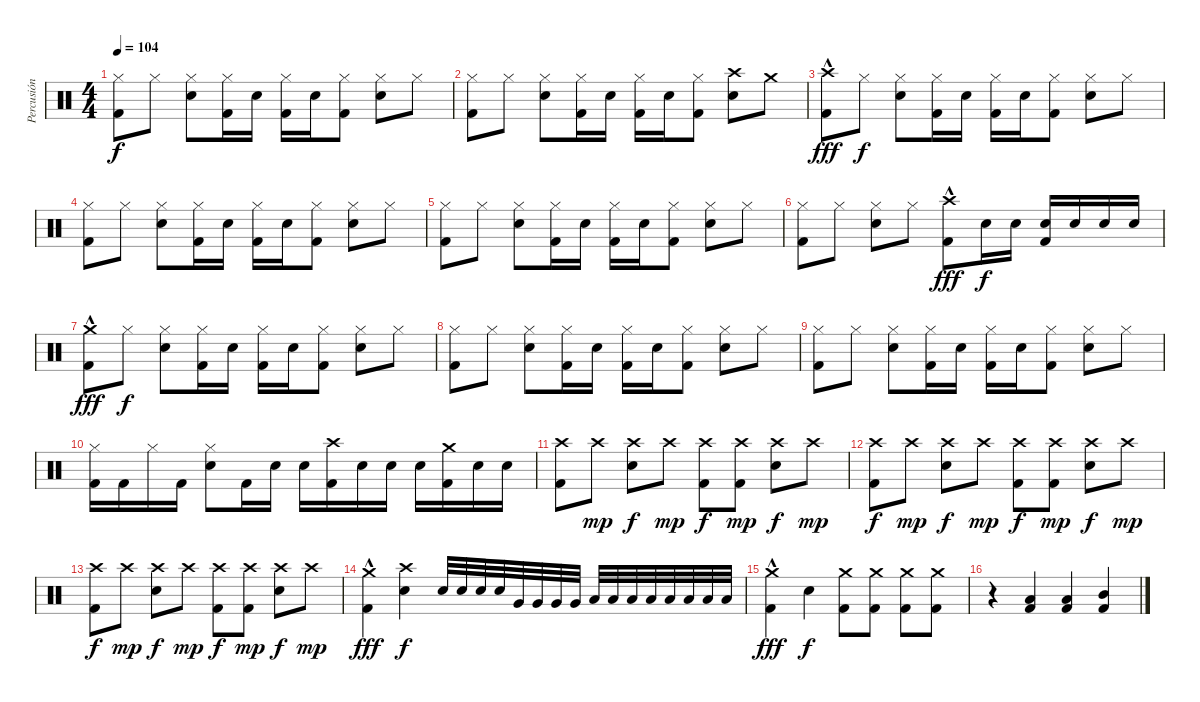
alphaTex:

\track ("Percusión" "Percusión") {instrument percussion}
\staff {score}
\articulation defaults
\ts (4 4)
\tempo 104
\clef neutral
\ks c
("Hi-Hat (closed)" "Kick (hit) 2").8{dy f} "Hi-Hat (closed)".8 ("Hi-Hat (closed)" "Snare (hit) 2").8 ("Hi-Hat (closed)" "Kick (hit) 2").16 "Snare (hit) 2".16 ("Hi-Hat (closed)" "Kick (hit) 2").16 "Snare (hit) 2".16 ("Hi-Hat (closed)" "Kick (hit) 2").8 ("Hi-Hat (closed)" "Snare (hit) 2").8 "Hi-Hat (closed)".8 |
("Hi-Hat (closed)" "Kick (hit) 2").8 "Hi-Hat (closed)".8 ("Hi-Hat (closed)" "Snare (hit) 2").8 ("Hi-Hat (closed)" "Kick (hit) 2").16 "Snare (hit) 2".16 ("Hi-Hat (closed)" "Kick (hit) 2").16 "Snare (hit) 2".16 ("Hi-Hat (closed)" "Kick (hit) 2").8 ("Crash high (hit)" "Snare (hit) 2").8 "Crash medium (hit)".8 |
("Crash high (hit)"{hac} "Kick (hit) 2").8{dy fff} "Hi-Hat (closed)".8{dy f} ("Hi-Hat (closed)" "Snare (hit) 2").8 ("Hi-Hat (closed)" "Kick (hit) 2").16 "Snare (hit) 2".16 ("Hi-Hat (closed)" "Kick (hit) 2").16 "Snare (hit) 2".16 ("Hi-Hat (closed)" "Kick (hit) 2").8 ("Hi-Hat (closed)" "Snare (hit) 2").8 "Hi-Hat (closed)".8 |
("Hi-Hat (closed)" "Kick (hit) 2").8 "Hi-Hat (closed)".8 ("Hi-Hat (closed)" "Snare (hit) 2").8 ("Hi-Hat (closed)" "Kick (hit) 2").16 "Snare (hit) 2".16 ("Hi-Hat (closed)" "Kick (hit) 2").16 "Snare (hit) 2".16 ("Hi-Hat (closed)" "Kick (hit) 2").8 ("Hi-Hat (closed)" "Snare (hit) 2").8 "Hi-Hat (closed)".8 |
("Hi-Hat (closed)" "Kick (hit) 2").8 "Hi-Hat (closed)".8 ("Hi-Hat (closed)" "Snare (hit) 2").8 ("Hi-Hat (closed)" "Kick (hit) 2").16 "Snare (hit) 2".16 ("Hi-Hat (closed)" "Kick (hit) 2").16 "Snare (hit) 2".16 ("Hi-Hat (closed)" "Kick (hit) 2").8 ("Hi-Hat (closed)" "Snare (hit) 2").8 "Hi-Hat (closed)".8 |
("Hi-Hat (closed)" "Kick (hit) 2").8 "Hi-Hat (closed)".8 ("Hi-Hat (closed)" "Snare (hit) 2").8 "Hi-Hat (closed)".8 ("Crash high (hit)" "Kick (hit) 2"{hac}).8{dy fff} "Snare (hit) 2".16{dy f} "Snare (hit) 2".16 ("Snare (hit) 2" "Kick (hit) 2").16 "Snare (hit) 2".16 "Snare (hit) 2".16 "Snare (hit) 2".16 |
("Crash medium (hit)"{hac} "Kick (hit) 2").8{dy fff} "Hi-Hat (closed)".8{dy f} ("Hi-Hat (closed)" "Snare (hit) 2").8 ("Hi-Hat (closed)" "Kick (hit) 2").16 "Snare (hit) 2".16 ("Hi-Hat (closed)" "Kick (hit) 2").16 "Snare (hit) 2".16 ("Hi-Hat (closed)" "Kick (hit) 2").8 ("Hi-Hat (closed)" "Snare (hit) 2").8 "Hi-Hat (closed)".8 |
("Hi-Hat (closed)" "Kick (hit) 2").8 "Hi-Hat (closed)".8 ("Hi-Hat (closed)" "Snare (hit) 2").8 ("Hi-Hat (closed)" "Kick (hit) 2").16 "Snare (hit) 2".16 ("Hi-Hat (closed)" "Kick (hit) 2").16 "Snare (hit) 2".16 ("Hi-Hat (closed)" "Kick (hit) 2").8 ("Hi-Hat (closed)" "Snare (hit) 2").8 "Hi-Hat (closed)".8 |
("Hi-Hat (closed)" "Kick (hit) 2").8 "Hi-Hat (closed)".8 ("Hi-Hat (closed)" "Snare (hit) 2").8 ("Hi-Hat (closed)" "Kick (hit) 2").16 "Snare (hit) 2".16 ("Hi-Hat (closed)" "Kick (hit) 2").16 "Snare (hit) 2".16 ("Hi-Hat (closed)" "Kick (hit) 2").8 ("Hi-Hat (closed)" "Snare (hit) 2").8 "Hi-Hat (closed)".8 |
("Hi-Hat (closed)" "Kick (hit) 2").16 "Kick (hit) 2".16 "Hi-Hat (closed)".16 "Kick (hit) 2".16 ("Hi-Hat (closed)" "Snare (hit) 2").8 "Kick (hit) 2".16 "Snare (hit) 2".16 "Snare (hit) 2".16 ("Crash high (hit)" "Kick (hit) 2").16 "Snare (hit) 2".16 "Snare (hit) 2".16 "Snare (hit) 2".16 ("Crash medium (hit)" "Kick (hit) 2").16 "Snare (hit) 2".16 "Snare (hit) 2".16 |
("Crash high (hit)" "Kick (hit) 2").8 "Crash high (hit)".8{dy mp} ("Crash high (hit)" "Snare (hit) 2").8{dy f} "Crash high (hit)".8{dy mp} ("Crash high (hit)" "Kick (hit) 2").8{dy f} ("Crash high (hit)" "Kick (hit) 2").8{dy mp} ("Crash high (hit)" "Snare (hit) 2").8{dy f} "Crash high (hit)".8{dy mp} |
("Crash high (hit)" "Kick (hit) 2").8{dy f} "Crash high (hit)".8{dy mp} ("Crash high (hit)" "Snare (hit) 2").8{dy f} "Crash high (hit)".8{dy mp} ("Crash high (hit)" "Kick (hit) 2").8{dy f} ("Crash high (hit)" "Kick (hit) 2").8{dy mp} ("Crash high (hit)" "Snare (hit) 2").8{dy f} "Crash high (hit)".8{dy mp} |
("Crash high (hit)" "Kick (hit) 2").8{dy f} "Crash high (hit)".8{dy mp} ("Crash high (hit)" "Snare (hit) 2").8{dy f} "Crash high (hit)".8{dy mp} ("Crash high (hit)" "Kick (hit) 2").8{dy f} ("Crash high (hit)" "Kick (hit) 2").8{dy mp} ("Crash high (hit)" "Snare (hit) 2").8{dy f} "Crash high (hit)".8{dy mp} |
("Crash medium (hit)"{hac} "Kick (hit) 2").4{dy fff} ("Crash high (hit)" "Snare (hit) 2").4{dy f} "Snare (hit) 2".32 "Snare (hit) 2".32 "Snare (hit) 2".32 "Snare (hit) 2".32 "Very Low Tom (hit)".32 "Very Low Tom (hit)".32 "Very Low Tom (hit)".32 "Very Low Tom (hit)".32 "Low Tom (hit)".32 "Low Tom (hit)".32 "Low Tom (hit)".32 "Low Tom (hit)".32 "Low Floor Tom (hit)".32 "Low Floor Tom (hit)".32 "Low Floor Tom (hit)".32 "Low Floor Tom (hit)".32 |
("Crash medium (hit)"{hac} "Kick (hit) 2").4{dy fff} "Snare (hit) 2".4{dy f} ("Crash medium (hit)" "Kick (hit) 2").8 ("Crash medium (hit)" "Kick (hit) 2").8 ("Crash medium (hit)" "Kick (hit) 2").8 ("Crash medium (hit)" "Kick (hit) 2").8 |
r.4 ("Low Tom (hit)" "Kick (hit) 2").4 ("Low Tom (hit)" "Kick (hit) 2").4 ("Mid Tom (hit)" "Kick (hit) 2").4
